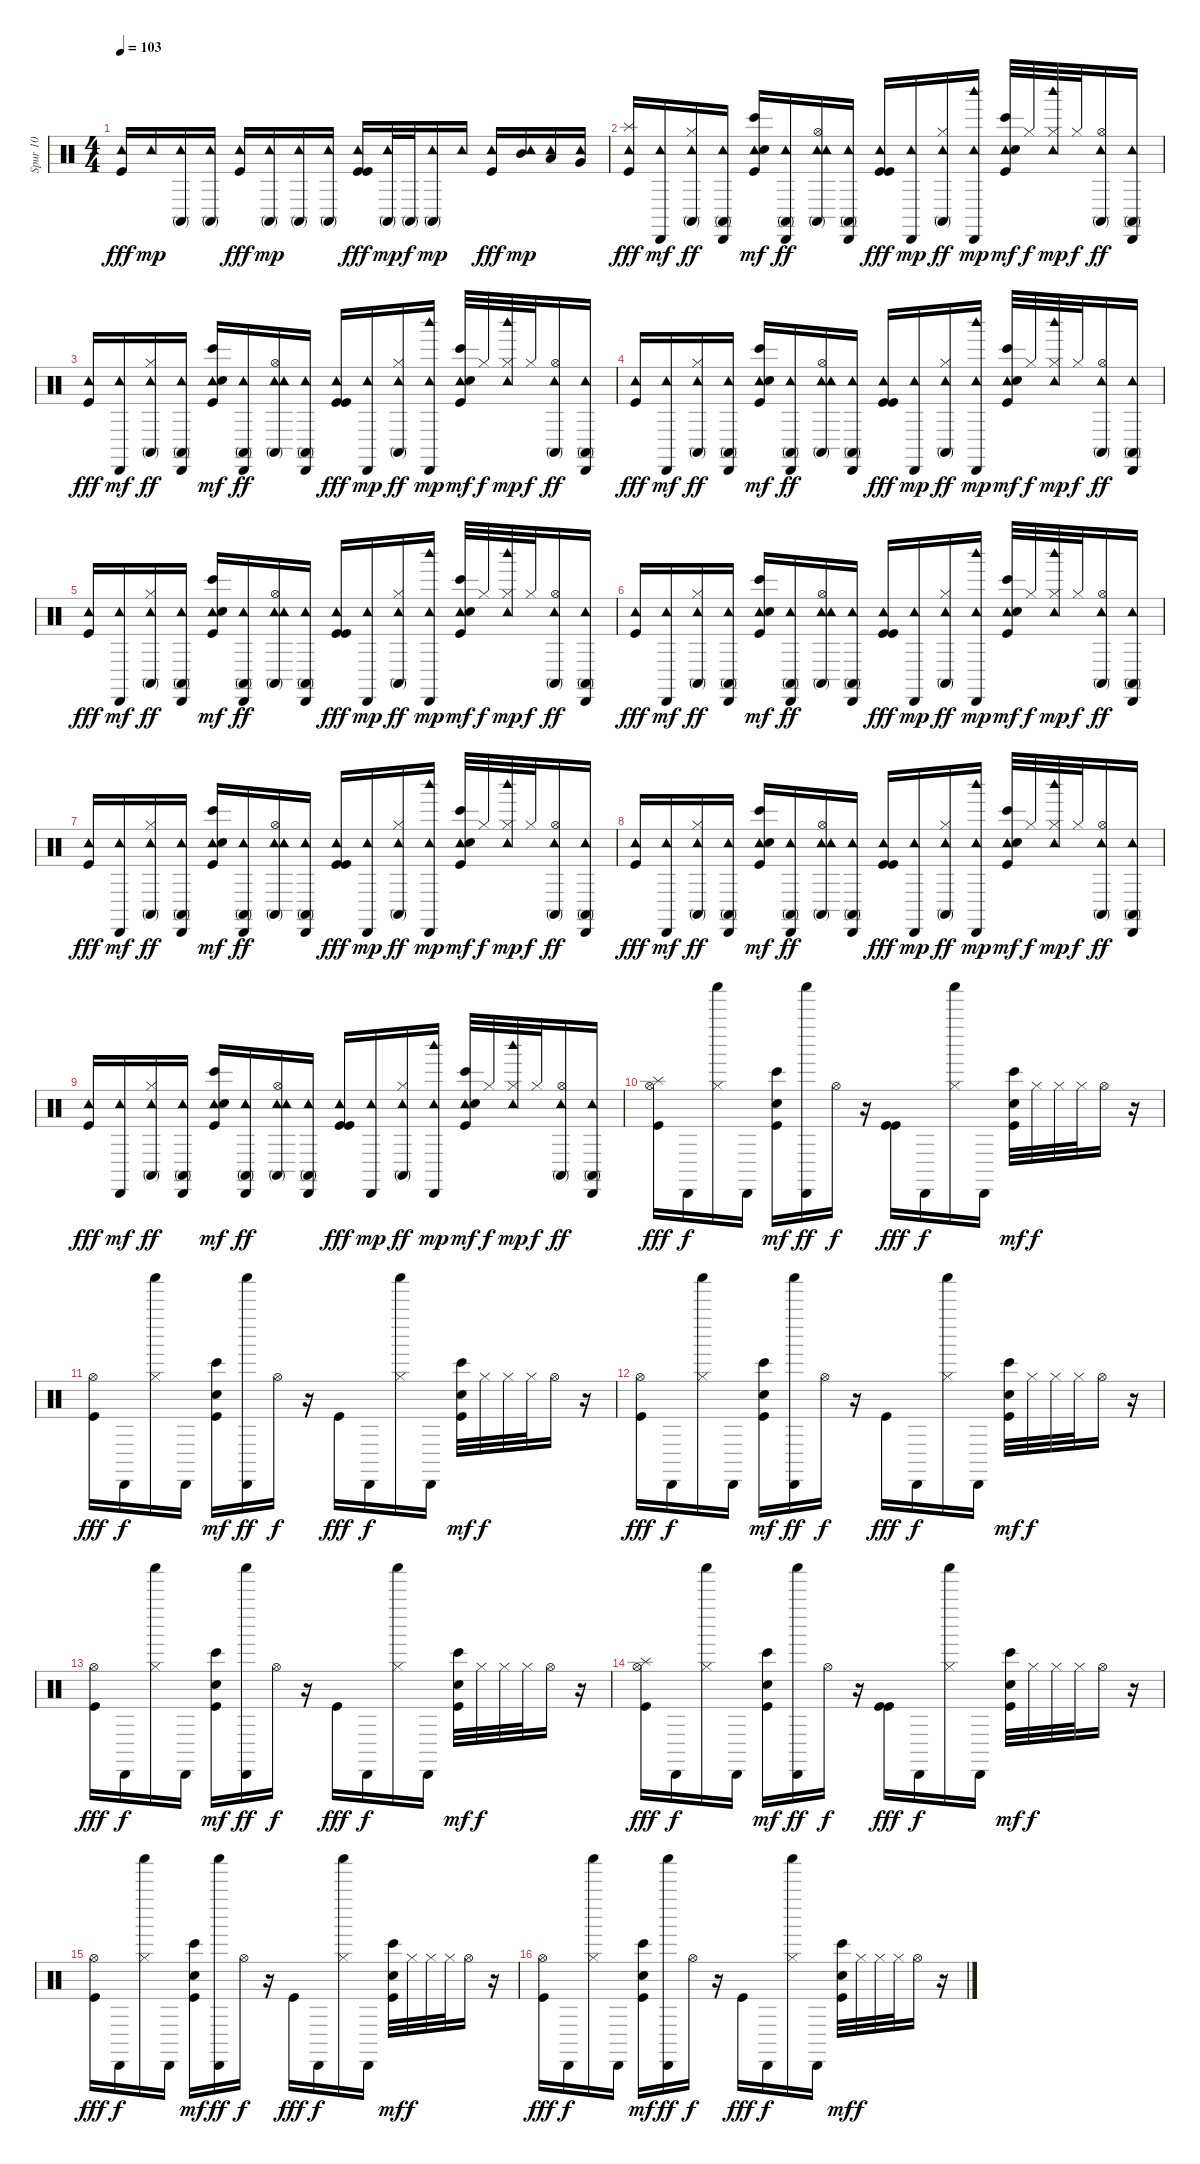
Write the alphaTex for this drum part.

\track ("Spur 10" "Spur 10") {instrument percussion}
\staff {score}
\articulation defaults
\ts (4 4)
\tempo 103
\clef neutral
\ks c
("Tambourine (hit)" "Kick (hit)").16{dy fff} "Tambourine (hit)".16{dy mp} ("Tambourine (hit)" "Conga high (mute)").16 ("Conga high (mute)" "Tambourine (hit)").16 ("Tambourine (hit)" "Kick (hit)").16{dy fff} ("Tambourine (hit)" "Conga high (mute)").16{dy mp} ("Tambourine (hit)" "Conga high (mute)").16 ("Tambourine (hit)" "Conga high (mute)").16 ("Tambourine (hit)" "Kick (hit)" "Kick (hit)").16{dy fff} ("Tambourine (hit)" "Conga high (mute)").32{dy mp} "Conga high (mute)".32{dy f} ("Conga high (mute)" "Tambourine (hit)").16{dy mp} "Tambourine (hit)".16 ("Tambourine (hit)" "Kick (hit)").16{dy fff} ("Tambourine (hit)" "Mid Tom (hit)").16{dy mp} ("Tambourine (hit)" "Low Tom (hit)").16 ("Tambourine (hit)" "Very Low Tom (hit)").16 |
("Splash (hit)" "Tambourine (hit)" "Kick (hit)").16{dy fff} ("Tambourine (hit)" "Cabasa (hit)").16{dy mf} ("Tambourine (hit)" "Hi-Hat (closed)" "Conga high (mute)").16{dy ff} ("Tambourine (hit)" "Cabasa (hit)" "Conga high (mute)").16 ("Tambourine (hit)" "Kick (hit)" "Electric Snare (hit)" "Bongo High (hit)").16{dy mf} ("Tambourine (hit)" "Cabasa (hit)" "Conga high (mute)").16{dy ff} ("Tambourine (hit)" "Hi-Hat (open)" "Tambourine (hit)" "Conga high (mute)").16 ("Tambourine (hit)" "Cabasa (hit)" "Conga high (mute)").16 ("Tambourine (hit)" "Kick (hit)" "Kick (hit)").16{dy fff} ("Cabasa (hit)" "Tambourine (hit)").16{dy mp} ("Hi-Hat (closed)" "Tambourine (hit)" "Conga high (mute)").16{dy ff} ("Cabasa (hit)" "Tambourine (hit)" "Woodblock high (hit)").16{dy mp} ("Tambourine (hit)" "Kick (hit)" "Electric Snare (hit)" "Bongo High (hit)").32{dy mf} "Hi-Hat (closed)".32{dy f} ("Hi-Hat (closed)" "Tambourine (hit)" "Woodblock high (hit)").32{dy mp} "Hi-Hat (closed)".32{dy f} ("Hi-Hat (open)" "Tambourine (hit)" "Conga high (mute)").16{dy ff} ("Tambourine (hit)" "Cabasa (hit)" "Conga high (mute)").16 |
("Tambourine (hit)" "Kick (hit)").16{dy fff} ("Tambourine (hit)" "Cabasa (hit)").16{dy mf} ("Tambourine (hit)" "Hi-Hat (closed)" "Conga high (mute)").16{dy ff} ("Tambourine (hit)" "Cabasa (hit)" "Conga high (mute)").16 ("Tambourine (hit)" "Kick (hit)" "Electric Snare (hit)" "Bongo High (hit)").16{dy mf} ("Tambourine (hit)" "Cabasa (hit)" "Conga high (mute)").16{dy ff} ("Tambourine (hit)" "Hi-Hat (open)" "Tambourine (hit)" "Conga high (mute)").16 ("Tambourine (hit)" "Cabasa (hit)" "Conga high (mute)").16 ("Tambourine (hit)" "Kick (hit)" "Kick (hit)").16{dy fff} ("Cabasa (hit)" "Tambourine (hit)").16{dy mp} ("Hi-Hat (closed)" "Tambourine (hit)" "Conga high (mute)").16{dy ff} ("Cabasa (hit)" "Tambourine (hit)" "Woodblock high (hit)").16{dy mp} ("Tambourine (hit)" "Kick (hit)" "Electric Snare (hit)" "Bongo High (hit)").32{dy mf} "Hi-Hat (closed)".32{dy f} ("Hi-Hat (closed)" "Tambourine (hit)" "Woodblock high (hit)").32{dy mp} "Hi-Hat (closed)".32{dy f} ("Hi-Hat (open)" "Tambourine (hit)" "Conga high (mute)").16{dy ff} ("Tambourine (hit)" "Cabasa (hit)" "Conga high (mute)").16 |
("Tambourine (hit)" "Kick (hit)").16{dy fff} ("Tambourine (hit)" "Cabasa (hit)").16{dy mf} ("Tambourine (hit)" "Hi-Hat (closed)" "Conga high (mute)").16{dy ff} ("Tambourine (hit)" "Cabasa (hit)" "Conga high (mute)").16 ("Tambourine (hit)" "Kick (hit)" "Electric Snare (hit)" "Bongo High (hit)").16{dy mf} ("Tambourine (hit)" "Cabasa (hit)" "Conga high (mute)").16{dy ff} ("Tambourine (hit)" "Hi-Hat (open)" "Tambourine (hit)" "Conga high (mute)").16 ("Tambourine (hit)" "Cabasa (hit)" "Conga high (mute)").16 ("Tambourine (hit)" "Kick (hit)" "Kick (hit)").16{dy fff} ("Cabasa (hit)" "Tambourine (hit)").16{dy mp} ("Hi-Hat (closed)" "Tambourine (hit)" "Conga high (mute)").16{dy ff} ("Cabasa (hit)" "Tambourine (hit)" "Woodblock high (hit)").16{dy mp} ("Tambourine (hit)" "Kick (hit)" "Electric Snare (hit)" "Bongo High (hit)").32{dy mf} "Hi-Hat (closed)".32{dy f} ("Hi-Hat (closed)" "Tambourine (hit)" "Woodblock high (hit)").32{dy mp} "Hi-Hat (closed)".32{dy f} ("Hi-Hat (open)" "Tambourine (hit)" "Conga high (mute)").16{dy ff} ("Tambourine (hit)" "Cabasa (hit)" "Conga high (mute)").16 |
("Tambourine (hit)" "Kick (hit)").16{dy fff} ("Tambourine (hit)" "Cabasa (hit)").16{dy mf} ("Tambourine (hit)" "Hi-Hat (closed)" "Conga high (mute)").16{dy ff} ("Tambourine (hit)" "Cabasa (hit)" "Conga high (mute)").16 ("Tambourine (hit)" "Kick (hit)" "Electric Snare (hit)" "Bongo High (hit)").16{dy mf} ("Tambourine (hit)" "Cabasa (hit)" "Conga high (mute)").16{dy ff} ("Tambourine (hit)" "Hi-Hat (open)" "Tambourine (hit)" "Conga high (mute)").16 ("Tambourine (hit)" "Cabasa (hit)" "Conga high (mute)").16 ("Tambourine (hit)" "Kick (hit)" "Kick (hit)").16{dy fff} ("Cabasa (hit)" "Tambourine (hit)").16{dy mp} ("Hi-Hat (closed)" "Tambourine (hit)" "Conga high (mute)").16{dy ff} ("Cabasa (hit)" "Tambourine (hit)" "Woodblock high (hit)").16{dy mp} ("Tambourine (hit)" "Kick (hit)" "Electric Snare (hit)" "Bongo High (hit)").32{dy mf} "Hi-Hat (closed)".32{dy f} ("Hi-Hat (closed)" "Tambourine (hit)" "Woodblock high (hit)").32{dy mp} "Hi-Hat (closed)".32{dy f} ("Hi-Hat (open)" "Tambourine (hit)" "Conga high (mute)").16{dy ff} ("Tambourine (hit)" "Cabasa (hit)" "Conga high (mute)").16 |
("Tambourine (hit)" "Kick (hit)").16{dy fff} ("Tambourine (hit)" "Cabasa (hit)").16{dy mf} ("Tambourine (hit)" "Hi-Hat (closed)" "Conga high (mute)").16{dy ff} ("Tambourine (hit)" "Cabasa (hit)" "Conga high (mute)").16 ("Tambourine (hit)" "Kick (hit)" "Electric Snare (hit)" "Bongo High (hit)").16{dy mf} ("Tambourine (hit)" "Cabasa (hit)" "Conga high (mute)").16{dy ff} ("Tambourine (hit)" "Hi-Hat (open)" "Tambourine (hit)" "Conga high (mute)").16 ("Tambourine (hit)" "Cabasa (hit)" "Conga high (mute)").16 ("Tambourine (hit)" "Kick (hit)" "Kick (hit)").16{dy fff} ("Cabasa (hit)" "Tambourine (hit)").16{dy mp} ("Hi-Hat (closed)" "Tambourine (hit)" "Conga high (mute)").16{dy ff} ("Cabasa (hit)" "Tambourine (hit)" "Woodblock high (hit)").16{dy mp} ("Tambourine (hit)" "Kick (hit)" "Electric Snare (hit)" "Bongo High (hit)").32{dy mf} "Hi-Hat (closed)".32{dy f} ("Hi-Hat (closed)" "Tambourine (hit)" "Woodblock high (hit)").32{dy mp} "Hi-Hat (closed)".32{dy f} ("Hi-Hat (open)" "Tambourine (hit)" "Conga high (mute)").16{dy ff} ("Tambourine (hit)" "Cabasa (hit)" "Conga high (mute)").16 |
("Tambourine (hit)" "Kick (hit)").16{dy fff} ("Tambourine (hit)" "Cabasa (hit)").16{dy mf} ("Tambourine (hit)" "Hi-Hat (closed)" "Conga high (mute)").16{dy ff} ("Tambourine (hit)" "Cabasa (hit)" "Conga high (mute)").16 ("Tambourine (hit)" "Kick (hit)" "Electric Snare (hit)" "Bongo High (hit)").16{dy mf} ("Tambourine (hit)" "Cabasa (hit)" "Conga high (mute)").16{dy ff} ("Tambourine (hit)" "Hi-Hat (open)" "Tambourine (hit)" "Conga high (mute)").16 ("Tambourine (hit)" "Cabasa (hit)" "Conga high (mute)").16 ("Tambourine (hit)" "Kick (hit)" "Kick (hit)").16{dy fff} ("Cabasa (hit)" "Tambourine (hit)").16{dy mp} ("Hi-Hat (closed)" "Tambourine (hit)" "Conga high (mute)").16{dy ff} ("Cabasa (hit)" "Tambourine (hit)" "Woodblock high (hit)").16{dy mp} ("Tambourine (hit)" "Kick (hit)" "Electric Snare (hit)" "Bongo High (hit)").32{dy mf} "Hi-Hat (closed)".32{dy f} ("Hi-Hat (closed)" "Tambourine (hit)" "Woodblock high (hit)").32{dy mp} "Hi-Hat (closed)".32{dy f} ("Hi-Hat (open)" "Tambourine (hit)" "Conga high (mute)").16{dy ff} ("Tambourine (hit)" "Cabasa (hit)" "Conga high (mute)").16 |
("Tambourine (hit)" "Kick (hit)").16{dy fff} ("Tambourine (hit)" "Cabasa (hit)").16{dy mf} ("Tambourine (hit)" "Hi-Hat (closed)" "Conga high (mute)").16{dy ff} ("Tambourine (hit)" "Cabasa (hit)" "Conga high (mute)").16 ("Tambourine (hit)" "Kick (hit)" "Electric Snare (hit)" "Bongo High (hit)").16{dy mf} ("Tambourine (hit)" "Cabasa (hit)" "Conga high (mute)").16{dy ff} ("Tambourine (hit)" "Hi-Hat (open)" "Tambourine (hit)" "Conga high (mute)").16 ("Tambourine (hit)" "Cabasa (hit)" "Conga high (mute)").16 ("Tambourine (hit)" "Kick (hit)" "Kick (hit)").16{dy fff} ("Cabasa (hit)" "Tambourine (hit)").16{dy mp} ("Hi-Hat (closed)" "Tambourine (hit)" "Conga high (mute)").16{dy ff} ("Cabasa (hit)" "Tambourine (hit)" "Woodblock high (hit)").16{dy mp} ("Tambourine (hit)" "Kick (hit)" "Electric Snare (hit)" "Bongo High (hit)").32{dy mf} "Hi-Hat (closed)".32{dy f} ("Hi-Hat (closed)" "Tambourine (hit)" "Woodblock high (hit)").32{dy mp} "Hi-Hat (closed)".32{dy f} ("Hi-Hat (open)" "Tambourine (hit)" "Conga high (mute)").16{dy ff} ("Tambourine (hit)" "Cabasa (hit)" "Conga high (mute)").16 |
("Tambourine (hit)" "Kick (hit)").16{dy fff} ("Tambourine (hit)" "Cabasa (hit)").16{dy mf} ("Tambourine (hit)" "Hi-Hat (closed)" "Conga high (mute)").16{dy ff} ("Tambourine (hit)" "Cabasa (hit)" "Conga high (mute)").16 ("Tambourine (hit)" "Kick (hit)" "Electric Snare (hit)" "Bongo High (hit)").16{dy mf} ("Tambourine (hit)" "Cabasa (hit)" "Conga high (mute)").16{dy ff} ("Tambourine (hit)" "Hi-Hat (open)" "Tambourine (hit)" "Conga high (mute)").16 ("Tambourine (hit)" "Cabasa (hit)" "Conga high (mute)").16 ("Tambourine (hit)" "Kick (hit)" "Kick (hit)").16{dy fff} ("Cabasa (hit)" "Tambourine (hit)").16{dy mp} ("Hi-Hat (closed)" "Tambourine (hit)" "Conga high (mute)").16{dy ff} ("Cabasa (hit)" "Tambourine (hit)" "Woodblock high (hit)").16{dy mp} ("Tambourine (hit)" "Kick (hit)" "Electric Snare (hit)" "Bongo High (hit)").32{dy mf} "Hi-Hat (closed)".32{dy f} ("Hi-Hat (closed)" "Tambourine (hit)" "Woodblock high (hit)").32{dy mp} "Hi-Hat (closed)".32{dy f} ("Hi-Hat (open)" "Tambourine (hit)" "Conga high (mute)").16{dy ff} ("Tambourine (hit)" "Cabasa (hit)" "Conga high (mute)").16 |
("Hi-Hat (open)" "Splash (hit)" "Kick (hit)").16{dy fff} "Cabasa (hit)".16{dy f} ("Shaker (hit)" "Hi-Hat (closed)").16 "Cabasa (hit)".16 ("Kick (hit)" "Electric Snare (hit)" "Bongo High (hit)").16{dy mf} ("Cabasa (hit)" "Shaker (hit)").16{dy ff} "Hi-Hat (open)".16{dy f} r.16 ("Kick (hit)" "Kick (hit)").16{dy fff} "Cabasa (hit)".16{dy f} ("Hi-Hat (closed)" "Shaker (hit)").16 "Cabasa (hit)".16 ("Kick (hit)" "Electric Snare (hit)" "Bongo High (hit)").32{dy mf} "Hi-Hat (closed)".32{dy f} "Hi-Hat (closed)".32 "Hi-Hat (closed)".32 "Hi-Hat (open)".16 r.16 |
("Hi-Hat (open)" "Kick (hit)").16{dy fff} "Cabasa (hit)".16{dy f} ("Shaker (hit)" "Hi-Hat (closed)").16 "Cabasa (hit)".16 ("Kick (hit)" "Electric Snare (hit)" "Bongo High (hit)").16{dy mf} ("Cabasa (hit)" "Shaker (hit)").16{dy ff} "Hi-Hat (open)".16{dy f} r.16 "Kick (hit)".16{dy fff} "Cabasa (hit)".16{dy f} ("Hi-Hat (closed)" "Shaker (hit)").16 "Cabasa (hit)".16 ("Kick (hit)" "Electric Snare (hit)" "Bongo High (hit)").32{dy mf} "Hi-Hat (closed)".32{dy f} "Hi-Hat (closed)".32 "Hi-Hat (closed)".32 "Hi-Hat (open)".16 r.16 |
("Hi-Hat (open)" "Kick (hit)").16{dy fff} "Cabasa (hit)".16{dy f} ("Shaker (hit)" "Hi-Hat (closed)").16 "Cabasa (hit)".16 ("Kick (hit)" "Electric Snare (hit)" "Bongo High (hit)").16{dy mf} ("Cabasa (hit)" "Shaker (hit)").16{dy ff} "Hi-Hat (open)".16{dy f} r.16 "Kick (hit)".16{dy fff} "Cabasa (hit)".16{dy f} ("Hi-Hat (closed)" "Shaker (hit)").16 "Cabasa (hit)".16 ("Kick (hit)" "Electric Snare (hit)" "Bongo High (hit)").32{dy mf} "Hi-Hat (closed)".32{dy f} "Hi-Hat (closed)".32 "Hi-Hat (closed)".32 "Hi-Hat (open)".16 r.16 |
("Hi-Hat (open)" "Kick (hit)").16{dy fff} "Cabasa (hit)".16{dy f} ("Shaker (hit)" "Hi-Hat (closed)").16 "Cabasa (hit)".16 ("Kick (hit)" "Electric Snare (hit)" "Bongo High (hit)").16{dy mf} ("Cabasa (hit)" "Shaker (hit)").16{dy ff} "Hi-Hat (open)".16{dy f} r.16 "Kick (hit)".16{dy fff} "Cabasa (hit)".16{dy f} ("Hi-Hat (closed)" "Shaker (hit)").16 "Cabasa (hit)".16 ("Kick (hit)" "Electric Snare (hit)" "Bongo High (hit)").32{dy mf} "Hi-Hat (closed)".32{dy f} "Hi-Hat (closed)".32 "Hi-Hat (closed)".32 "Hi-Hat (open)".16 r.16 |
("Hi-Hat (open)" "Splash (hit)" "Kick (hit)").16{dy fff} "Cabasa (hit)".16{dy f} ("Shaker (hit)" "Hi-Hat (closed)").16 "Cabasa (hit)".16 ("Kick (hit)" "Electric Snare (hit)" "Bongo High (hit)").16{dy mf} ("Cabasa (hit)" "Shaker (hit)").16{dy ff} "Hi-Hat (open)".16{dy f} r.16 ("Kick (hit)" "Kick (hit)").16{dy fff} "Cabasa (hit)".16{dy f} ("Hi-Hat (closed)" "Shaker (hit)").16 "Cabasa (hit)".16 ("Kick (hit)" "Electric Snare (hit)" "Bongo High (hit)").32{dy mf} "Hi-Hat (closed)".32{dy f} "Hi-Hat (closed)".32 "Hi-Hat (closed)".32 "Hi-Hat (open)".16 r.16 |
("Hi-Hat (open)" "Kick (hit)").16{dy fff} "Cabasa (hit)".16{dy f} ("Shaker (hit)" "Hi-Hat (closed)").16 "Cabasa (hit)".16 ("Kick (hit)" "Electric Snare (hit)" "Bongo High (hit)").16{dy mf} ("Cabasa (hit)" "Shaker (hit)").16{dy ff} "Hi-Hat (open)".16{dy f} r.16 "Kick (hit)".16{dy fff} "Cabasa (hit)".16{dy f} ("Hi-Hat (closed)" "Shaker (hit)").16 "Cabasa (hit)".16 ("Kick (hit)" "Electric Snare (hit)" "Bongo High (hit)").32{dy mf} "Hi-Hat (closed)".32{dy f} "Hi-Hat (closed)".32 "Hi-Hat (closed)".32 "Hi-Hat (open)".16 r.16 |
("Hi-Hat (open)" "Kick (hit)").16{dy fff} "Cabasa (hit)".16{dy f} ("Shaker (hit)" "Hi-Hat (closed)").16 "Cabasa (hit)".16 ("Kick (hit)" "Electric Snare (hit)" "Bongo High (hit)").16{dy mf} ("Cabasa (hit)" "Shaker (hit)").16{dy ff} "Hi-Hat (open)".16{dy f} r.16 "Kick (hit)".16{dy fff} "Cabasa (hit)".16{dy f} ("Hi-Hat (closed)" "Shaker (hit)").16 "Cabasa (hit)".16 ("Kick (hit)" "Electric Snare (hit)" "Bongo High (hit)").32{dy mf} "Hi-Hat (closed)".32{dy f} "Hi-Hat (closed)".32 "Hi-Hat (closed)".32 "Hi-Hat (open)".16 r.16
